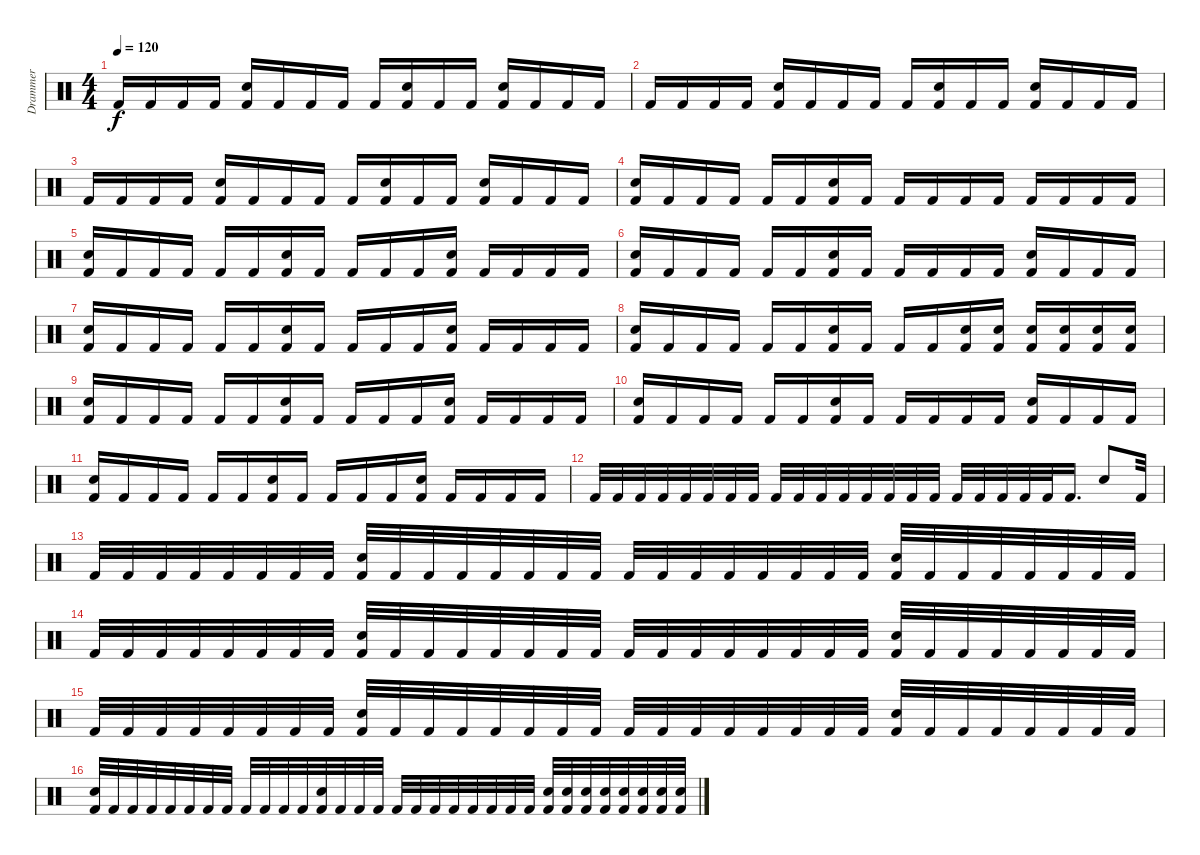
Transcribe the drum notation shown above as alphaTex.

\track ("Drammer" "Drammer") {instrument percussion}
\staff {score}
\articulation defaults
\ts (4 4)
\tempo 120
\clef neutral
\ks c "Kick (hit) 2".16{dy f} "Kick (hit) 2".16 "Kick (hit) 2".16 "Kick (hit) 2".16
("Snare (hit) 2" "Kick (hit) 2").16 "Kick (hit) 2".16 "Kick (hit) 2".16 "Kick (hit) 2".16 "Kick (hit) 2".16 ("Snare (hit) 2" "Kick (hit) 2").16 "Kick (hit) 2".16 "Kick (hit) 2".16 ("Snare (hit) 2" "Kick (hit) 2").16 "Kick (hit) 2".16 "Kick (hit) 2".16 "Kick (hit) 2".16 |
"Kick (hit) 2".16 "Kick (hit) 2".16 "Kick (hit) 2".16 "Kick (hit) 2".16 ("Snare (hit) 2" "Kick (hit) 2").16 "Kick (hit) 2".16 "Kick (hit) 2".16 "Kick (hit) 2".16 "Kick (hit) 2".16 ("Snare (hit) 2" "Kick (hit) 2").16 "Kick (hit) 2".16 "Kick (hit) 2".16 ("Snare (hit) 2" "Kick (hit) 2").16 "Kick (hit) 2".16 "Kick (hit) 2".16 "Kick (hit) 2".16 |
"Kick (hit) 2".16 "Kick (hit) 2".16 "Kick (hit) 2".16 "Kick (hit) 2".16 ("Snare (hit) 2" "Kick (hit) 2").16 "Kick (hit) 2".16 "Kick (hit) 2".16 "Kick (hit) 2".16 "Kick (hit) 2".16 ("Snare (hit) 2" "Kick (hit) 2").16 "Kick (hit) 2".16 "Kick (hit) 2".16 ("Snare (hit) 2" "Kick (hit) 2").16 "Kick (hit) 2".16 "Kick (hit) 2".16 "Kick (hit) 2".16 |
("Snare (hit) 2" "Kick (hit) 2").16 "Kick (hit) 2".16 "Kick (hit) 2".16 "Kick (hit) 2".16 "Kick (hit) 2".16 "Kick (hit) 2".16 ("Snare (hit) 2" "Kick (hit) 2").16 "Kick (hit) 2".16 "Kick (hit) 2".16 "Kick (hit) 2".16 "Kick (hit) 2".16 "Kick (hit) 2".16 "Kick (hit) 2".16 "Kick (hit) 2".16 "Kick (hit) 2".16 "Kick (hit) 2".16 |
("Snare (hit) 2" "Kick (hit) 2").16 "Kick (hit) 2".16 "Kick (hit) 2".16 "Kick (hit) 2".16 "Kick (hit) 2".16 "Kick (hit) 2".16 ("Snare (hit) 2" "Kick (hit) 2").16 "Kick (hit) 2".16 "Kick (hit) 2".16 "Kick (hit) 2".16 "Kick (hit) 2".16 ("Snare (hit) 2" "Kick (hit) 2").16 "Kick (hit) 2".16 "Kick (hit) 2".16 "Kick (hit) 2".16 "Kick (hit) 2".16 |
("Snare (hit) 2" "Kick (hit) 2").16 "Kick (hit) 2".16 "Kick (hit) 2".16 "Kick (hit) 2".16 "Kick (hit) 2".16 "Kick (hit) 2".16 ("Snare (hit) 2" "Kick (hit) 2").16 "Kick (hit) 2".16 "Kick (hit) 2".16 "Kick (hit) 2".16 "Kick (hit) 2".16 "Kick (hit) 2".16 ("Snare (hit) 2" "Kick (hit) 2").16 "Kick (hit) 2".16 "Kick (hit) 2".16 "Kick (hit) 2".16 |
("Snare (hit) 2" "Kick (hit) 2").16 "Kick (hit) 2".16 "Kick (hit) 2".16 "Kick (hit) 2".16 "Kick (hit) 2".16 "Kick (hit) 2".16 ("Snare (hit) 2" "Kick (hit) 2").16 "Kick (hit) 2".16 "Kick (hit) 2".16 "Kick (hit) 2".16 "Kick (hit) 2".16 ("Snare (hit) 2" "Kick (hit) 2").16 "Kick (hit) 2".16 "Kick (hit) 2".16 "Kick (hit) 2".16 "Kick (hit) 2".16 |
("Snare (hit) 2" "Kick (hit) 2").16 "Kick (hit) 2".16 "Kick (hit) 2".16 "Kick (hit) 2".16 "Kick (hit) 2".16 "Kick (hit) 2".16 ("Snare (hit) 2" "Kick (hit) 2").16 "Kick (hit) 2".16 "Kick (hit) 2".16 "Kick (hit) 2".16 ("Snare (hit) 2" "Kick (hit) 2").16 ("Snare (hit) 2" "Kick (hit) 2").16 ("Snare (hit) 2" "Kick (hit) 2").16 ("Snare (hit) 2" "Kick (hit) 2").16 ("Snare (hit) 2" "Kick (hit) 2").16 ("Snare (hit) 2" "Kick (hit) 2").16 |
("Snare (hit) 2" "Kick (hit) 2").16 "Kick (hit) 2".16 "Kick (hit) 2".16 "Kick (hit) 2".16 "Kick (hit) 2".16 "Kick (hit) 2".16 ("Snare (hit) 2" "Kick (hit) 2").16 "Kick (hit) 2".16 "Kick (hit) 2".16 "Kick (hit) 2".16 "Kick (hit) 2".16 ("Snare (hit) 2" "Kick (hit) 2").16 "Kick (hit) 2".16 "Kick (hit) 2".16 "Kick (hit) 2".16 "Kick (hit) 2".16 |
("Snare (hit) 2" "Kick (hit) 2").16 "Kick (hit) 2".16 "Kick (hit) 2".16 "Kick (hit) 2".16 "Kick (hit) 2".16 "Kick (hit) 2".16 ("Snare (hit) 2" "Kick (hit) 2").16 "Kick (hit) 2".16 "Kick (hit) 2".16 "Kick (hit) 2".16 "Kick (hit) 2".16 "Kick (hit) 2".16 ("Snare (hit) 2" "Kick (hit) 2").16 "Kick (hit) 2".16 "Kick (hit) 2".16 "Kick (hit) 2".16 |
("Snare (hit) 2" "Kick (hit) 2").16 "Kick (hit) 2".16 "Kick (hit) 2".16 "Kick (hit) 2".16 "Kick (hit) 2".16 "Kick (hit) 2".16 ("Snare (hit) 2" "Kick (hit) 2").16 "Kick (hit) 2".16 "Kick (hit) 2".16 "Kick (hit) 2".16 "Kick (hit) 2".16 ("Snare (hit) 2" "Kick (hit) 2").16 "Kick (hit) 2".16 "Kick (hit) 2".16 "Kick (hit) 2".16 "Kick (hit) 2".16 |
"Kick (hit) 2".32 "Kick (hit) 2".32 "Kick (hit) 2".32 "Kick (hit) 2".32 "Kick (hit) 2".32 "Kick (hit) 2".32 "Kick (hit) 2".32 "Kick (hit) 2".32 "Kick (hit) 2".32 "Kick (hit) 2".32 "Kick (hit) 2".32 "Kick (hit) 2".32 "Kick (hit) 2".32 "Kick (hit) 2".32 "Kick (hit) 2".32 "Kick (hit) 2".32 "Kick (hit) 2".32 "Kick (hit) 2".32 "Kick (hit) 2".32 "Kick (hit) 2".32 "Kick (hit) 2".32 "Kick (hit) 2".16{d} "Snare (hit) 2".8 "Kick (hit) 2".32 |
"Kick (hit) 2".32 "Kick (hit) 2".32 "Kick (hit) 2".32 "Kick (hit) 2".32 "Kick (hit) 2".32 "Kick (hit) 2".32 "Kick (hit) 2".32 "Kick (hit) 2".32 ("Snare (hit) 2" "Kick (hit) 2").32 "Kick (hit) 2".32 "Kick (hit) 2".32 "Kick (hit) 2".32 "Kick (hit) 2".32 "Kick (hit) 2".32 "Kick (hit) 2".32 "Kick (hit) 2".32 "Kick (hit) 2".32 "Kick (hit) 2".32 "Kick (hit) 2".32 "Kick (hit) 2".32 "Kick (hit) 2".32 "Kick (hit) 2".32 "Kick (hit) 2".32 "Kick (hit) 2".32 ("Snare (hit) 2" "Kick (hit) 2").32 "Kick (hit) 2".32 "Kick (hit) 2".32 "Kick (hit) 2".32 "Kick (hit) 2".32 "Kick (hit) 2".32 "Kick (hit) 2".32 "Kick (hit) 2".32 |
"Kick (hit) 2".32 "Kick (hit) 2".32 "Kick (hit) 2".32 "Kick (hit) 2".32 "Kick (hit) 2".32 "Kick (hit) 2".32 "Kick (hit) 2".32 "Kick (hit) 2".32 ("Snare (hit) 2" "Kick (hit) 2").32 "Kick (hit) 2".32 "Kick (hit) 2".32 "Kick (hit) 2".32 "Kick (hit) 2".32 "Kick (hit) 2".32 "Kick (hit) 2".32 "Kick (hit) 2".32 "Kick (hit) 2".32 "Kick (hit) 2".32 "Kick (hit) 2".32 "Kick (hit) 2".32 "Kick (hit) 2".32 "Kick (hit) 2".32 "Kick (hit) 2".32 "Kick (hit) 2".32 ("Snare (hit) 2" "Kick (hit) 2").32 "Kick (hit) 2".32 "Kick (hit) 2".32 "Kick (hit) 2".32 "Kick (hit) 2".32 "Kick (hit) 2".32 "Kick (hit) 2".32 "Kick (hit) 2".32 |
"Kick (hit) 2".32 "Kick (hit) 2".32 "Kick (hit) 2".32 "Kick (hit) 2".32 "Kick (hit) 2".32 "Kick (hit) 2".32 "Kick (hit) 2".32 "Kick (hit) 2".32 ("Snare (hit) 2" "Kick (hit) 2").32 "Kick (hit) 2".32 "Kick (hit) 2".32 "Kick (hit) 2".32 "Kick (hit) 2".32 "Kick (hit) 2".32 "Kick (hit) 2".32 "Kick (hit) 2".32 "Kick (hit) 2".32 "Kick (hit) 2".32 "Kick (hit) 2".32 "Kick (hit) 2".32 "Kick (hit) 2".32 "Kick (hit) 2".32 "Kick (hit) 2".32 "Kick (hit) 2".32 ("Snare (hit) 2" "Kick (hit) 2").32 "Kick (hit) 2".32 "Kick (hit) 2".32 "Kick (hit) 2".32 "Kick (hit) 2".32 "Kick (hit) 2".32 "Kick (hit) 2".32 "Kick (hit) 2".32 |
("Snare (hit) 2" "Kick (hit) 2").32 "Kick (hit) 2".32 "Kick (hit) 2".32 "Kick (hit) 2".32 "Kick (hit) 2".32 "Kick (hit) 2".32 "Kick (hit) 2".32 "Kick (hit) 2".32 "Kick (hit) 2".32 "Kick (hit) 2".32 "Kick (hit) 2".32 "Kick (hit) 2".32 ("Snare (hit) 2" "Kick (hit) 2").32 "Kick (hit) 2".32 "Kick (hit) 2".32 "Kick (hit) 2".32 "Kick (hit) 2".32 "Kick (hit) 2".32 "Kick (hit) 2".32 "Kick (hit) 2".32 "Kick (hit) 2".32 "Kick (hit) 2".32 "Kick (hit) 2".32 "Kick (hit) 2".32 ("Snare (hit) 2" "Kick (hit) 2").32 ("Snare (hit) 2" "Kick (hit) 2").32 ("Snare (hit) 2" "Kick (hit) 2").32 ("Snare (hit) 2" "Kick (hit) 2").32 ("Snare (hit) 2" "Kick (hit) 2").32 ("Snare (hit) 2" "Kick (hit) 2").32 ("Snare (hit) 2" "Kick (hit) 2").32 ("Snare (hit) 2" "Kick (hit) 2").32
